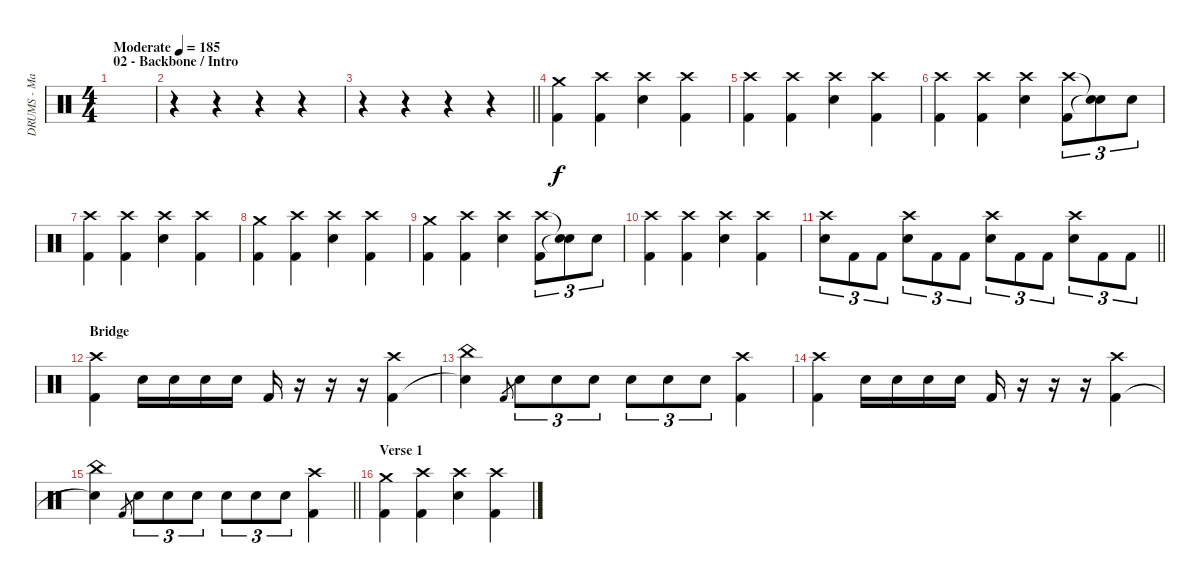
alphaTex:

\track ("DRUMS - Mario Duplantier" "DRUMS - Ma") {instrument percussion}
\staff {score}
\articulation defaults
\ts (4 4)
\section ("" "02 - Backbone / Intro")
\tempo (185 "Moderate")
\clef neutral
\ks c
|
r.4 r.4 r.4 r.4 |
\barLineRight lightlight
r.4 r.4 r.4 r.4 |
("Crash medium (hit)" "Kick (hit) 2").4 ("Crash high (hit)" "Kick (hit) 2").4 ("Crash high (hit)" "Electric Snare (hit)").4 ("Crash high (hit)" "Kick (hit) 2").4 |
("Crash high (hit)" "Kick (hit) 2").4 ("Crash high (hit)" "Kick (hit) 2").4 ("Crash high (hit)" "Electric Snare (hit)").4 ("Crash high (hit)" "Kick (hit) 2").4 |
("Crash high (hit)" "Kick (hit) 2").4 ("Crash high (hit)" "Kick (hit) 2").4 ("Crash high (hit)" "Electric Snare (hit)").4 ("Crash high (hit)" "Kick (hit) 2").8{tu (3 2)} ("Snare (hit)"{t} "Snare (hit)"{t}).8{tu (3 2)} "Electric Snare (hit)".8{tu (3 2)} |
("Crash high (hit)" "Kick (hit) 2").4 ("Crash high (hit)" "Kick (hit) 2").4 ("Crash high (hit)" "Electric Snare (hit)").4 ("Crash high (hit)" "Kick (hit) 2").4 |
("Crash medium (hit)" "Kick (hit) 2").4 ("Crash high (hit)" "Kick (hit) 2").4 ("Crash high (hit)" "Electric Snare (hit)").4 ("Crash high (hit)" "Kick (hit) 2").4 |
("Crash medium (hit)" "Kick (hit) 2").4 ("Crash high (hit)" "Kick (hit) 2").4 ("Crash high (hit)" "Electric Snare (hit)").4 ("Crash high (hit)" "Kick (hit) 2").8{tu (3 2)} ("Snare (hit)"{t} "Snare (hit)"{t}).8{tu (3 2)} "Electric Snare (hit)".8{tu (3 2)} |
("Crash high (hit)" "Kick (hit) 2").4 ("Crash high (hit)" "Kick (hit) 2").4 ("Crash high (hit)" "Electric Snare (hit)").4 ("Crash high (hit)" "Kick (hit) 2").4 |
\barLineRight lightlight
("Crash high (hit)" "Electric Snare (hit)").8{tu (3 2)} "Kick (hit) 2".8{tu (3 2)} "Kick (hit) 2".8{tu (3 2)} ("Crash high (hit)" "Electric Snare (hit)").8{tu (3 2)} "Kick (hit) 2".8{tu (3 2)} "Kick (hit) 2".8{tu (3 2)} ("Crash high (hit)" "Electric Snare (hit)").8{tu (3 2)} "Kick (hit) 2".8{tu (3 2)} "Kick (hit) 2".8{tu (3 2)} ("Crash high (hit)" "Electric Snare (hit)").8{tu (3 2)} "Kick (hit) 2".8{tu (3 2)} "Kick (hit) 2".8{tu (3 2)} |
\section ("" "Bridge")
("Crash high (hit)" "Kick (hit) 2").4 "Electric Snare (hit)".16 "Electric Snare (hit)".16 "Electric Snare (hit)".16 "Electric Snare (hit)".16 "Kick (hit) 2".16 r.16 r.16 r.16 ("Crash high (hit)" "Kick (hit) 2").4 |
("China (hit)" "Snare (hit)"{t}).4 "Kick (hit) 2".8{gr} "Electric Snare (hit)".8{tu (3 2)} "Electric Snare (hit)".8{tu (3 2)} "Electric Snare (hit)".8{tu (3 2)} "Electric Snare (hit)".8{tu (3 2)} "Electric Snare (hit)".8{tu (3 2)} "Electric Snare (hit)".8{tu (3 2)} ("Crash high (hit)" "Kick (hit) 2").4 |
("Crash high (hit)" "Kick (hit) 2").4 "Electric Snare (hit)".16 "Electric Snare (hit)".16 "Electric Snare (hit)".16 "Electric Snare (hit)".16 "Kick (hit) 2".16 r.16 r.16 r.16 ("Crash high (hit)" "Kick (hit) 2").4 |
\barLineRight lightlight
("China (hit)" "Snare (hit)"{t}).4 "Kick (hit) 2".8{gr} "Electric Snare (hit)".8{tu (3 2)} "Electric Snare (hit)".8{tu (3 2)} "Electric Snare (hit)".8{tu (3 2)} "Electric Snare (hit)".8{tu (3 2)} "Electric Snare (hit)".8{tu (3 2)} "Electric Snare (hit)".8{tu (3 2)} ("Crash high (hit)" "Kick (hit) 2").4 |
\section ("" "Verse 1")
("Crash medium (hit)" "Kick (hit) 2").4 ("Crash high (hit)" "Kick (hit) 2").4 ("Crash high (hit)" "Electric Snare (hit)").4 ("Crash high (hit)" "Kick (hit) 2").4
